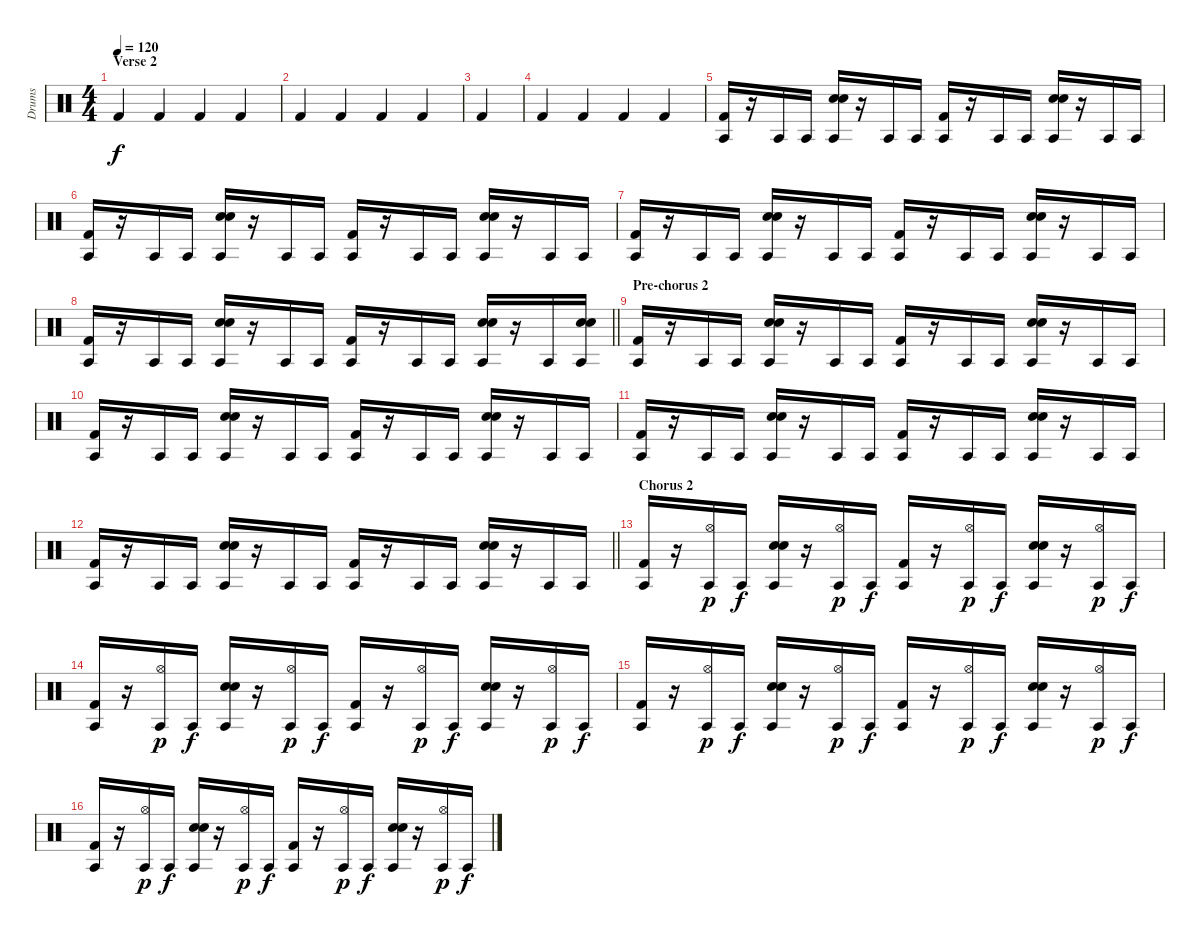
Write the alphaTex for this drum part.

\track ("Drums" "Drums") {instrument percussion}
\staff {score}
\articulation defaults
\ts (4 4)
\section ("" "Verse 2")
\tempo 120
\clef neutral
\ks c "Kick (hit) 2".4{dy f} "Kick (hit) 2".4 "Kick (hit) 2".4 "Kick (hit) 2".4
|
"Kick (hit) 2".4 "Kick (hit) 2".4 "Kick (hit) 2".4 "Kick (hit) 2".4 |
"Kick (hit) 2".4 |
"Kick (hit) 2".4 "Kick (hit) 2".4 "Kick (hit) 2".4 "Kick (hit) 2".4 |
("Kick (hit) 2" "Agogo tow (hit)").16 r.16 "Agogo tow (hit)".16 "Agogo tow (hit)".16 ("Snare (hit) 2" "Hand Clap (hit)" "Agogo tow (hit)").16 r.16 "Agogo tow (hit)".16 "Agogo tow (hit)".16 ("Kick (hit) 2" "Agogo tow (hit)").16 r.16 "Agogo tow (hit)".16 "Agogo tow (hit)".16 ("Snare (hit) 2" "Hand Clap (hit)" "Agogo tow (hit)").16 r.16 "Agogo tow (hit)".16 "Agogo tow (hit)".16 |
("Kick (hit) 2" "Agogo tow (hit)").16 r.16 "Agogo tow (hit)".16 "Agogo tow (hit)".16 ("Snare (hit) 2" "Hand Clap (hit)" "Agogo tow (hit)").16 r.16 "Agogo tow (hit)".16 "Agogo tow (hit)".16 ("Kick (hit) 2" "Agogo tow (hit)").16 r.16 "Agogo tow (hit)".16 "Agogo tow (hit)".16 ("Snare (hit) 2" "Hand Clap (hit)" "Agogo tow (hit)").16 r.16 "Agogo tow (hit)".16 "Agogo tow (hit)".16 |
("Kick (hit) 2" "Agogo tow (hit)").16 r.16 "Agogo tow (hit)".16 "Agogo tow (hit)".16 ("Snare (hit) 2" "Hand Clap (hit)" "Agogo tow (hit)").16 r.16 "Agogo tow (hit)".16 "Agogo tow (hit)".16 ("Kick (hit) 2" "Agogo tow (hit)").16 r.16 "Agogo tow (hit)".16 "Agogo tow (hit)".16 ("Snare (hit) 2" "Hand Clap (hit)" "Agogo tow (hit)").16 r.16 "Agogo tow (hit)".16 "Agogo tow (hit)".16 |
\barLineRight lightlight
("Kick (hit) 2" "Agogo tow (hit)").16 r.16 "Agogo tow (hit)".16 "Agogo tow (hit)".16 ("Snare (hit) 2" "Hand Clap (hit)" "Agogo tow (hit)").16 r.16 "Agogo tow (hit)".16 "Agogo tow (hit)".16 ("Kick (hit) 2" "Agogo tow (hit)").16 r.16 "Agogo tow (hit)".16 "Agogo tow (hit)".16 ("Snare (hit) 2" "Hand Clap (hit)" "Agogo tow (hit)").16 r.16 "Agogo tow (hit)".16 ("Snare (hit) 2" "Hand Clap (hit)" "Agogo tow (hit)").16 |
\section ("" "Pre-chorus 2")
("Kick (hit) 2" "Agogo tow (hit)").16 r.16 "Agogo tow (hit)".16 "Agogo tow (hit)".16 ("Snare (hit) 2" "Hand Clap (hit)" "Agogo tow (hit)").16 r.16 "Agogo tow (hit)".16 "Agogo tow (hit)".16 ("Kick (hit) 2" "Agogo tow (hit)").16 r.16 "Agogo tow (hit)".16 "Agogo tow (hit)".16 ("Snare (hit) 2" "Hand Clap (hit)" "Agogo tow (hit)").16 r.16 "Agogo tow (hit)".16 "Agogo tow (hit)".16 |
("Kick (hit) 2" "Agogo tow (hit)").16 r.16 "Agogo tow (hit)".16 "Agogo tow (hit)".16 ("Snare (hit) 2" "Hand Clap (hit)" "Agogo tow (hit)").16 r.16 "Agogo tow (hit)".16 "Agogo tow (hit)".16 ("Kick (hit) 2" "Agogo tow (hit)").16 r.16 "Agogo tow (hit)".16 "Agogo tow (hit)".16 ("Snare (hit) 2" "Hand Clap (hit)" "Agogo tow (hit)").16 r.16 "Agogo tow (hit)".16 "Agogo tow (hit)".16 |
("Kick (hit) 2" "Agogo tow (hit)").16 r.16 "Agogo tow (hit)".16 "Agogo tow (hit)".16 ("Snare (hit) 2" "Hand Clap (hit)" "Agogo tow (hit)").16 r.16 "Agogo tow (hit)".16 "Agogo tow (hit)".16 ("Kick (hit) 2" "Agogo tow (hit)").16 r.16 "Agogo tow (hit)".16 "Agogo tow (hit)".16 ("Snare (hit) 2" "Hand Clap (hit)" "Agogo tow (hit)").16 r.16 "Agogo tow (hit)".16 "Agogo tow (hit)".16 |
\barLineRight lightlight
("Kick (hit) 2" "Agogo tow (hit)").16 r.16 "Agogo tow (hit)".16 "Agogo tow (hit)".16 ("Snare (hit) 2" "Hand Clap (hit)" "Agogo tow (hit)").16 r.16 "Agogo tow (hit)".16 "Agogo tow (hit)".16 ("Kick (hit) 2" "Agogo tow (hit)").16 r.16 "Agogo tow (hit)".16 "Agogo tow (hit)".16 ("Snare (hit) 2" "Hand Clap (hit)" "Agogo tow (hit)").16 r.16 "Agogo tow (hit)".16 "Agogo tow (hit)".16 |
\section ("" "Chorus 2")
("Kick (hit) 2" "Agogo tow (hit)").16 r.16 ("Agogo tow (hit)" "Hi-Hat (open)").16{dy p} "Agogo tow (hit)".16{dy f} ("Snare (hit) 2" "Hand Clap (hit)" "Agogo tow (hit)").16 r.16 ("Agogo tow (hit)" "Hi-Hat (open)").16{dy p} "Agogo tow (hit)".16{dy f} ("Kick (hit) 2" "Agogo tow (hit)").16 r.16 ("Hi-Hat (open)" "Agogo tow (hit)").16{dy p} "Agogo tow (hit)".16{dy f} ("Snare (hit) 2" "Hand Clap (hit)" "Agogo tow (hit)").16 r.16 ("Hi-Hat (open)" "Agogo tow (hit)").16{dy p} "Agogo tow (hit)".16{dy f} |
("Kick (hit) 2" "Agogo tow (hit)").16 r.16 ("Agogo tow (hit)" "Hi-Hat (open)").16{dy p} "Agogo tow (hit)".16{dy f} ("Snare (hit) 2" "Hand Clap (hit)" "Agogo tow (hit)").16 r.16 ("Agogo tow (hit)" "Hi-Hat (open)").16{dy p} "Agogo tow (hit)".16{dy f} ("Kick (hit) 2" "Agogo tow (hit)").16 r.16 ("Hi-Hat (open)" "Agogo tow (hit)").16{dy p} "Agogo tow (hit)".16{dy f} ("Snare (hit) 2" "Hand Clap (hit)" "Agogo tow (hit)").16 r.16 ("Hi-Hat (open)" "Agogo tow (hit)").16{dy p} "Agogo tow (hit)".16{dy f} |
("Kick (hit) 2" "Agogo tow (hit)").16 r.16 ("Agogo tow (hit)" "Hi-Hat (open)").16{dy p} "Agogo tow (hit)".16{dy f} ("Snare (hit) 2" "Hand Clap (hit)" "Agogo tow (hit)").16 r.16 ("Agogo tow (hit)" "Hi-Hat (open)").16{dy p} "Agogo tow (hit)".16{dy f} ("Kick (hit) 2" "Agogo tow (hit)").16 r.16 ("Hi-Hat (open)" "Agogo tow (hit)").16{dy p} "Agogo tow (hit)".16{dy f} ("Snare (hit) 2" "Hand Clap (hit)" "Agogo tow (hit)").16 r.16 ("Hi-Hat (open)" "Agogo tow (hit)").16{dy p} "Agogo tow (hit)".16{dy f} |
("Kick (hit) 2" "Agogo tow (hit)").16 r.16 ("Agogo tow (hit)" "Hi-Hat (open)").16{dy p} "Agogo tow (hit)".16{dy f} ("Snare (hit) 2" "Hand Clap (hit)" "Agogo tow (hit)").16 r.16 ("Agogo tow (hit)" "Hi-Hat (open)").16{dy p} "Agogo tow (hit)".16{dy f} ("Kick (hit) 2" "Agogo tow (hit)").16 r.16 ("Hi-Hat (open)" "Agogo tow (hit)").16{dy p} "Agogo tow (hit)".16{dy f} ("Snare (hit) 2" "Hand Clap (hit)" "Agogo tow (hit)").16 r.16 ("Hi-Hat (open)" "Agogo tow (hit)").16{dy p} "Agogo tow (hit)".16{dy f}
